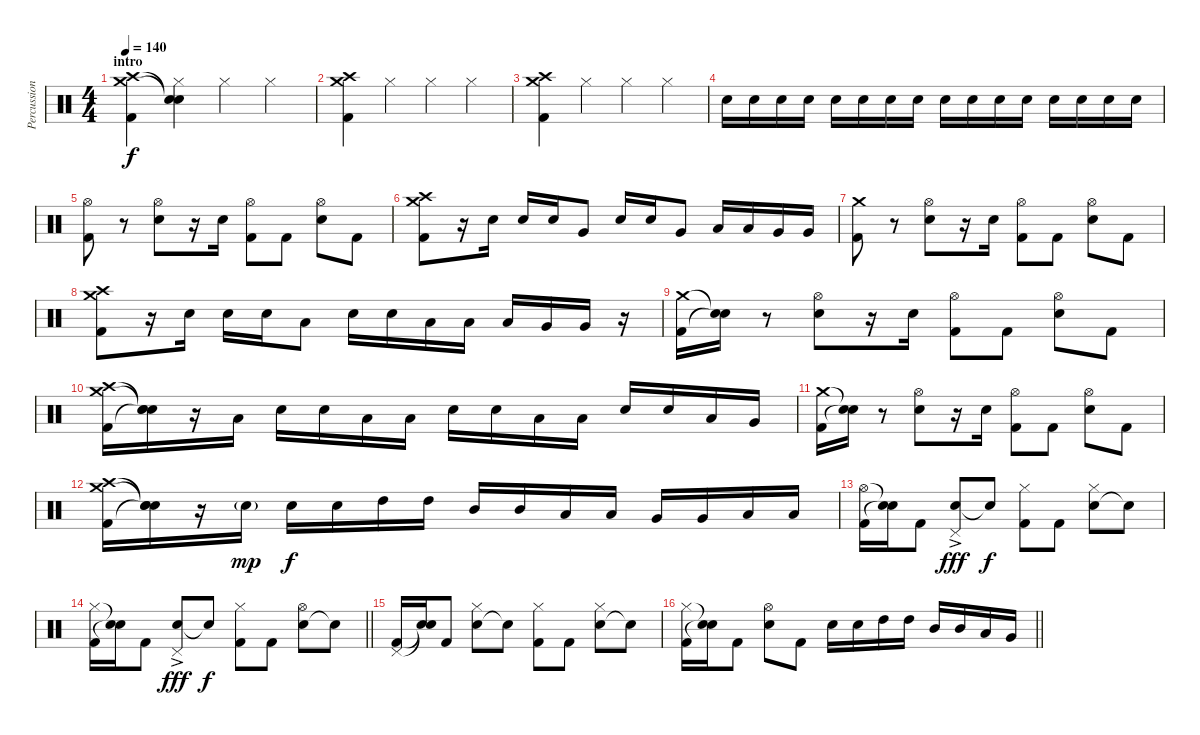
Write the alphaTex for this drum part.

\track ("Percussion" "Percussion") {instrument percussion}
\staff {score}
\articulation defaults
\ts (4 4)
\section ("" "intro")
\tempo 140
\clef neutral
\ks c
("Crash medium (hit)" "Crash high (hit)" "Kick (hit) 2").4{dy f} ("Snare (hit)"{t} "Snare (hit)"{t} "Hi-Hat (closed)").4 "Hi-Hat (closed)".4 "Hi-Hat (closed)".4 |
("Crash medium (hit)" "Crash high (hit)" "Kick (hit) 2").4 "Hi-Hat (closed)".4 "Hi-Hat (closed)".4 "Hi-Hat (closed)".4 |
("Crash medium (hit)" "Crash high (hit)" "Kick (hit) 2").4 "Hi-Hat (closed)".4 "Hi-Hat (closed)".4 "Hi-Hat (closed)".4 |
"Electric Snare (hit)".16 "Electric Snare (hit)".16 "Electric Snare (hit)".16 "Electric Snare (hit)".16 "Electric Snare (hit)".16 "Electric Snare (hit)".16 "Electric Snare (hit)".16 "Electric Snare (hit)".16 "Electric Snare (hit)".16 "Electric Snare (hit)".16 "Electric Snare (hit)".16 "Electric Snare (hit)".16 "Electric Snare (hit)".16 "Electric Snare (hit)".16 "Electric Snare (hit)".16 "Electric Snare (hit)".16 |
("Kick (hit) 2" "Hi-Hat (open)").8 r.8 ("Electric Snare (hit)" "Hi-Hat (open)").8 r.16 "Electric Snare (hit)".16 ("Kick (hit) 2" "Hi-Hat (open)").8 "Kick (hit) 2".8 ("Electric Snare (hit)" "Hi-Hat (open)").8 "Kick (hit) 2".8 |
("Crash medium (hit)" "Crash high (hit)" "Kick (hit) 2").8 r.16 "Electric Snare (hit)".16 "Electric Snare (hit)".16 "Electric Snare (hit)".16 "Very Low Tom (hit)".8 "Electric Snare (hit)".16 "Electric Snare (hit)".16 "Very Low Tom (hit)".8 "Low Tom (hit)".16 "Low Tom (hit)".16 "Very Low Tom (hit)".16 "Very Low Tom (hit)".16 |
("Crash medium (hit)" "Kick (hit) 2").8 r.8 ("Electric Snare (hit)" "Hi-Hat (open)").8 r.16 "Electric Snare (hit)".16 ("Kick (hit) 2" "Hi-Hat (open)").8 "Kick (hit) 2".8 ("Electric Snare (hit)" "Hi-Hat (open)").8 "Kick (hit) 2".8 |
("Crash medium (hit)" "Crash high (hit)" "Kick (hit) 2").8 r.16 "Electric Snare (hit)".16 "Electric Snare (hit)".16 "Electric Snare (hit)".16 "Low Tom (hit)".8 "Electric Snare (hit)".16 "Electric Snare (hit)".16 "Low Tom (hit)".16 "Low Tom (hit)".16 "Low Tom (hit)".16 "Very Low Tom (hit)".16 "Very Low Tom (hit)".16 r.16 |
("Crash medium (hit)" "Kick (hit) 2").16 ("Snare (hit)"{t} "Snare (hit)"{t}).16 r.8 ("Electric Snare (hit)" "Hi-Hat (open)").8 r.16 "Electric Snare (hit)".16 ("Kick (hit) 2" "Hi-Hat (open)").8 "Kick (hit) 2".8 ("Electric Snare (hit)" "Hi-Hat (open)").8 "Kick (hit) 2".8 |
("Crash medium (hit)" "Crash high (hit)" "Kick (hit) 2").16 ("Snare (hit)"{t} "Snare (hit)"{t} "Snare (hit)"{t}).16 r.16 "Low Floor Tom (hit)".16 "Electric Snare (hit)".16 "Electric Snare (hit)".16 "Low Tom (hit)".16 "Low Floor Tom (hit)".16 "Electric Snare (hit)".16 "Electric Snare (hit)".16 "Low Tom (hit)".16 "Low Floor Tom (hit)".16 "Electric Snare (hit)".16 "Electric Snare (hit)".16 "Low Tom (hit)".16 "Very Low Tom (hit)".16 |
("Crash medium (hit)" "Kick (hit) 2").16 ("Snare (hit)"{t} "Snare (hit)"{t}).16 r.8 ("Electric Snare (hit)" "Hi-Hat (open)").8 r.16 "Electric Snare (hit)".16 ("Kick (hit) 2" "Hi-Hat (open)").8 "Kick (hit) 2".8 ("Electric Snare (hit)" "Hi-Hat (open)").8 "Kick (hit) 2".8 |
("Crash medium (hit)" "Crash high (hit)" "Kick (hit) 2").16 ("Snare (hit)"{t} "Snare (hit)"{t} "Snare (hit)"{t}).16 r.16 "Electric Snare (hit)"{g}.16{dy mp} "Electric Snare (hit)".16{dy f} "Electric Snare (hit)".16 "High Tom (hit)".16 "High Tom (hit)".16 "Mid Tom (hit)".16 "Mid Tom (hit)".16 "Low Tom (hit)".16 "Low Tom (hit)".16 "Very Low Tom (hit)".16 "Very Low Tom (hit)".16 "Low Floor Tom (hit)".16 "Low Floor Tom (hit)".16 |
("Kick (hit) 2" "Hi-Hat (open)").16 ("Snare (hit)"{t} "Snare (hit)"{t}).16 "Kick (hit) 2".8 ("Electric Snare (hit)" "Pedal Hi-Hat (hit)"{ac}).8{dy fff} "Snare (hit)"{t}.8{dy f} ("Kick (hit) 2" "Hi-Hat (closed)").8 "Kick (hit) 2".8 ("Electric Snare (hit)" "Hi-Hat (closed)").8 "Snare (hit)"{t}.8 |
\barLineRight lightlight
("Kick (hit) 2" "Hi-Hat (closed)").16 ("Snare (hit)"{t} "Snare (hit)"{t}).16 "Kick (hit) 2".8 ("Electric Snare (hit)" "Pedal Hi-Hat (hit)"{ac}).8{dy fff} "Snare (hit)"{t}.8{dy f} ("Kick (hit) 2" "Hi-Hat (closed)").8 "Kick (hit) 2".8 ("Electric Snare (hit)" "Hi-Hat (open)").8 "Snare (hit)"{t}.8 |
("Kick (hit) 2" "Pedal Hi-Hat (hit)").16 ("Snare (hit)"{t} "Snare (hit)"{t}).16 "Kick (hit) 2".8 ("Electric Snare (hit)" "Hi-Hat (closed)").8 "Snare (hit)"{t}.8 ("Kick (hit) 2" "Hi-Hat (closed)").8 "Kick (hit) 2".8 ("Electric Snare (hit)" "Hi-Hat (closed)").8 "Snare (hit)"{t}.8 |
\barLineRight lightlight
("Kick (hit) 2" "Hi-Hat (closed)").16 ("Snare (hit)"{t} "Snare (hit)"{t}).16 "Kick (hit) 2".8 ("Electric Snare (hit)" "Hi-Hat (open)").8 "Kick (hit) 2".8 "Electric Snare (hit)".16 "Electric Snare (hit)".16 "High Tom (hit)".16 "High Tom (hit)".16 "Mid Tom (hit)".16 "Mid Tom (hit)".16 "Low Tom (hit)".16 "Very Low Tom (hit)".16
